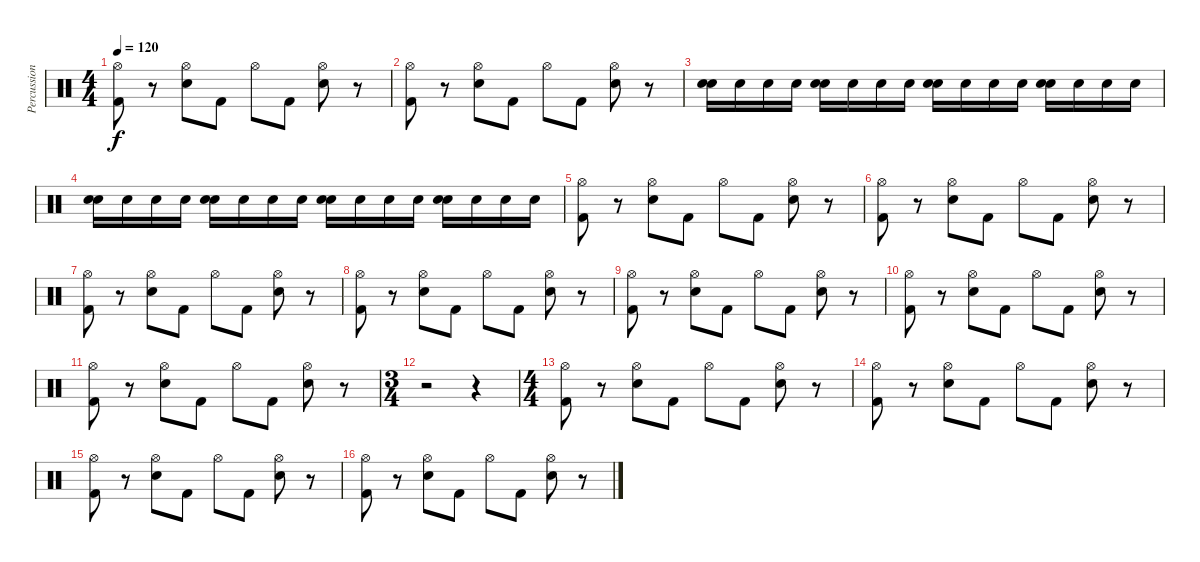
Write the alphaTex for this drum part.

\track ("Percussion" "Percussion") {instrument percussion}
\staff {score}
\articulation defaults
\ts (4 4)
\tempo 120
\clef neutral
\ks c
("Hi-Hat (open)" "Kick (hit) 2").8{dy f} r.8 ("Hi-Hat (open)" "Snare (hit) 2").8 "Kick (hit) 2".8 "Hi-Hat (open)".8 "Kick (hit) 2".8 ("Hi-Hat (open)" "Snare (hit) 2").8 r.8 |
("Hi-Hat (open)" "Kick (hit) 2").8 r.8 ("Hi-Hat (open)" "Snare (hit) 2").8 "Kick (hit) 2".8 "Hi-Hat (open)".8 "Kick (hit) 2".8 ("Hi-Hat (open)" "Snare (hit) 2").8 r.8 |
("Snare (hit) 2" "Snare (hit) 2").16 "Snare (hit) 2".16 "Snare (hit) 2".16 "Snare (hit) 2".16 ("Snare (hit) 2" "Snare (hit) 2").16 "Snare (hit) 2".16 "Snare (hit) 2".16 "Snare (hit) 2".16 ("Snare (hit) 2" "Snare (hit) 2").16 "Snare (hit) 2".16 "Snare (hit) 2".16 "Snare (hit) 2".16 ("Snare (hit) 2" "Snare (hit) 2").16 "Snare (hit) 2".16 "Snare (hit) 2".16 "Snare (hit) 2".16 |
("Snare (hit) 2" "Snare (hit) 2").16 "Snare (hit) 2".16 "Snare (hit) 2".16 "Snare (hit) 2".16 ("Snare (hit) 2" "Snare (hit) 2").16 "Snare (hit) 2".16 "Snare (hit) 2".16 "Snare (hit) 2".16 ("Snare (hit) 2" "Snare (hit) 2").16 "Snare (hit) 2".16 "Snare (hit) 2".16 "Snare (hit) 2".16 ("Snare (hit) 2" "Snare (hit) 2").16 "Snare (hit) 2".16 "Snare (hit) 2".16 "Snare (hit) 2".16 |
("Hi-Hat (open)" "Kick (hit) 2").8 r.8 ("Hi-Hat (open)" "Snare (hit) 2").8 "Kick (hit) 2".8 "Hi-Hat (open)".8 "Kick (hit) 2".8 ("Hi-Hat (open)" "Snare (hit) 2").8 r.8 |
("Hi-Hat (open)" "Kick (hit) 2").8 r.8 ("Hi-Hat (open)" "Snare (hit) 2").8 "Kick (hit) 2".8 "Hi-Hat (open)".8 "Kick (hit) 2".8 ("Hi-Hat (open)" "Snare (hit) 2").8 r.8 |
("Hi-Hat (open)" "Kick (hit) 2").8 r.8 ("Hi-Hat (open)" "Snare (hit) 2").8 "Kick (hit) 2".8 "Hi-Hat (open)".8 "Kick (hit) 2".8 ("Hi-Hat (open)" "Snare (hit) 2").8 r.8 |
("Hi-Hat (open)" "Kick (hit) 2").8 r.8 ("Hi-Hat (open)" "Snare (hit) 2").8 "Kick (hit) 2".8 "Hi-Hat (open)".8 "Kick (hit) 2".8 ("Hi-Hat (open)" "Snare (hit) 2").8 r.8 |
("Hi-Hat (open)" "Kick (hit) 2").8 r.8 ("Hi-Hat (open)" "Snare (hit) 2").8 "Kick (hit) 2".8 "Hi-Hat (open)".8 "Kick (hit) 2".8 ("Hi-Hat (open)" "Snare (hit) 2").8 r.8 |
("Hi-Hat (open)" "Kick (hit) 2").8 r.8 ("Hi-Hat (open)" "Snare (hit) 2").8 "Kick (hit) 2".8 "Hi-Hat (open)".8 "Kick (hit) 2".8 ("Hi-Hat (open)" "Snare (hit) 2").8 r.8 |
("Hi-Hat (open)" "Kick (hit) 2").8 r.8 ("Hi-Hat (open)" "Snare (hit) 2").8 "Kick (hit) 2".8 "Hi-Hat (open)".8 "Kick (hit) 2".8 ("Hi-Hat (open)" "Snare (hit) 2").8 r.8 |
\ts (3 4)
r.2 r.4 |
\ts (4 4)
("Hi-Hat (open)" "Kick (hit) 2").8 r.8 ("Hi-Hat (open)" "Snare (hit) 2").8 "Kick (hit) 2".8 "Hi-Hat (open)".8 "Kick (hit) 2".8 ("Hi-Hat (open)" "Snare (hit) 2").8 r.8 |
("Hi-Hat (open)" "Kick (hit) 2").8 r.8 ("Hi-Hat (open)" "Snare (hit) 2").8 "Kick (hit) 2".8 "Hi-Hat (open)".8 "Kick (hit) 2".8 ("Hi-Hat (open)" "Snare (hit) 2").8 r.8 |
("Hi-Hat (open)" "Kick (hit) 2").8 r.8 ("Hi-Hat (open)" "Snare (hit) 2").8 "Kick (hit) 2".8 "Hi-Hat (open)".8 "Kick (hit) 2".8 ("Hi-Hat (open)" "Snare (hit) 2").8 r.8 |
("Hi-Hat (open)" "Kick (hit) 2").8 r.8 ("Hi-Hat (open)" "Snare (hit) 2").8 "Kick (hit) 2".8 "Hi-Hat (open)".8 "Kick (hit) 2".8 ("Hi-Hat (open)" "Snare (hit) 2").8 r.8
